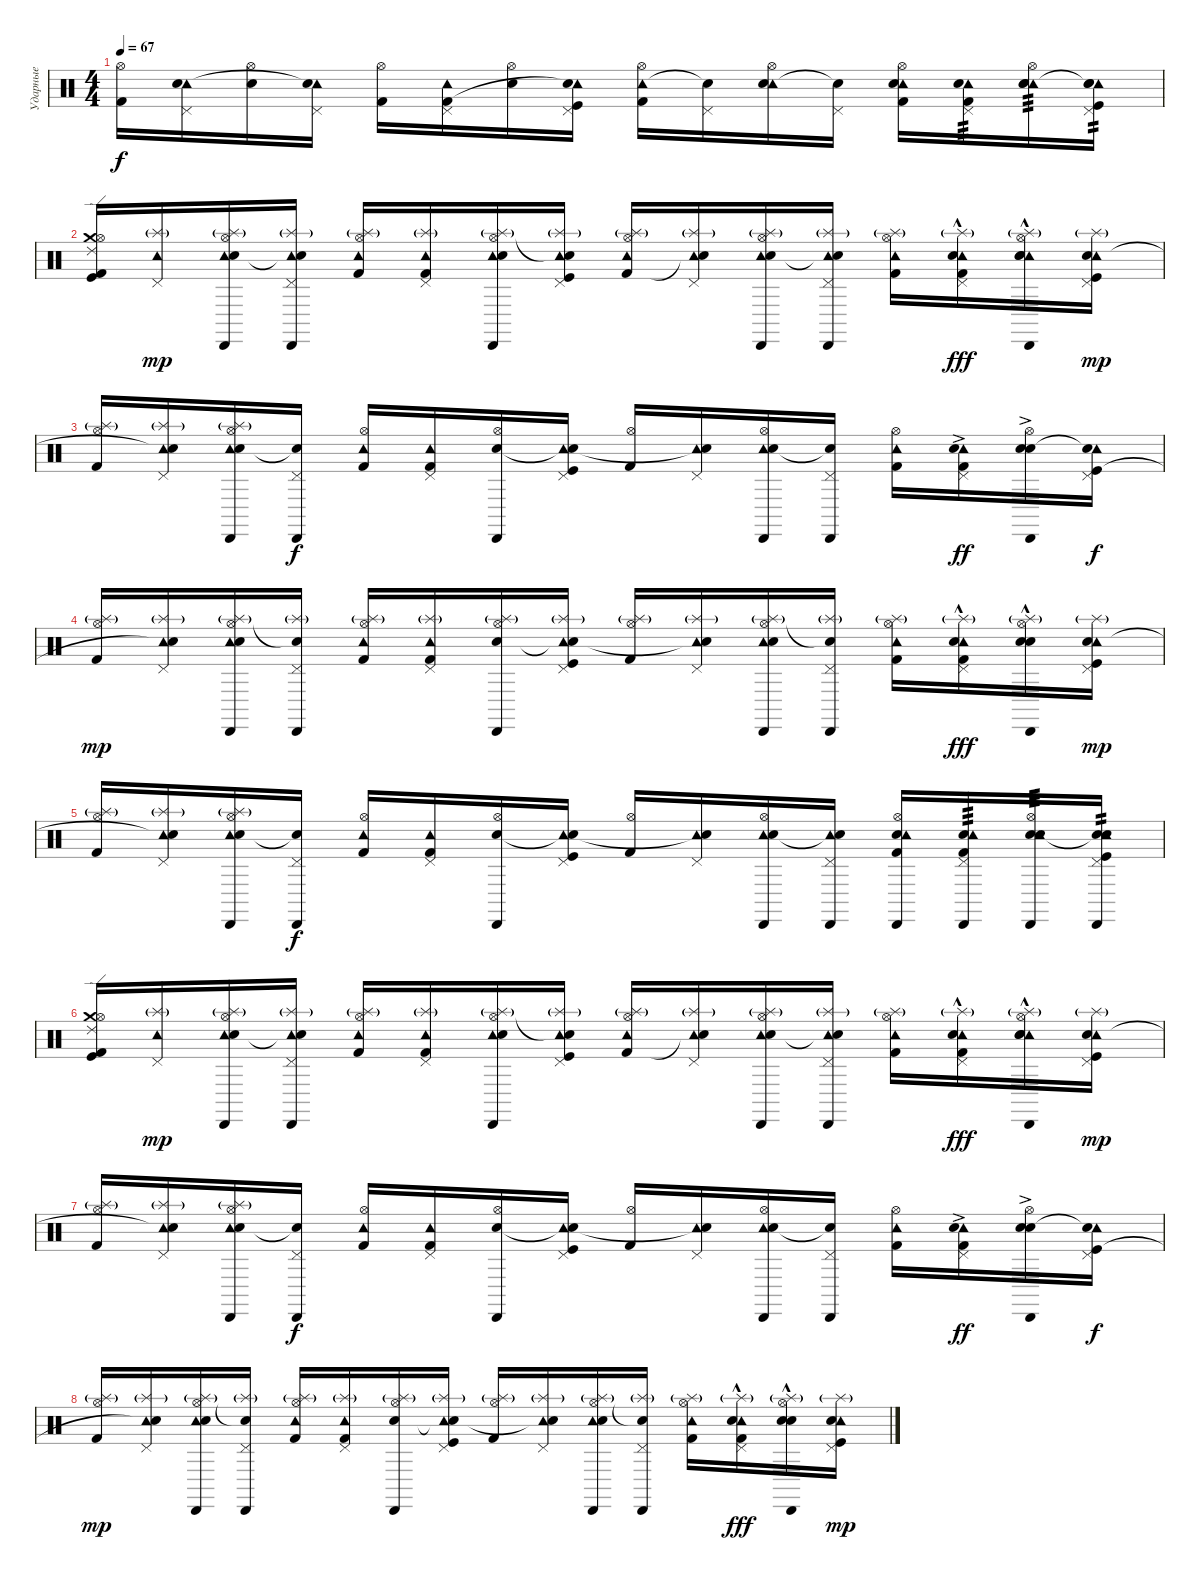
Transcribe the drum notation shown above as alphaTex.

\track ("Ударные" "Ударные") {instrument percussion}
\staff {score}
\articulation defaults
\ts (4 4)
\tempo 67
\clef neutral
\ks c
("Hi-Hat (open)" "Kick (hit) 2").16{dy f} ("Pedal Hi-Hat (hit)" "Tambourine (hit)" "Snare (hit)"{t}).16 ("Hi-Hat (open)" "Electric Snare (hit)").16 ("Pedal Hi-Hat (hit)" "Tambourine (hit)" "Snare (hit) 2"{t}).16 ("Hi-Hat (open)" "Kick (hit) 2").16 ("Pedal Hi-Hat (hit)" "Tambourine (hit)" "Kick (hit) 2").16 ("Hi-Hat (open)" "Snare (hit) 2").16 ("Pedal Hi-Hat (hit)" "Tambourine (hit)" "Snare (hit) 2"{t} "Kick (hit)").16 ("Hi-Hat (open)" "Tambourine (hit)" "Kick (hit) 2").16 ("Pedal Hi-Hat (hit)" "Snare (hit)"{t}).16 ("Hi-Hat (open)" "Tambourine (hit)" "Electric Snare (hit)").16 ("Pedal Hi-Hat (hit)" "Snare (hit) 2"{t}).16 ("Hi-Hat (open)" "Tambourine (hit)" "Snare (hit) 2" "Kick (hit) 2").16 ("Pedal Hi-Hat (hit)" "Tambourine (hit)" "Snare (hit) 2" "Kick (hit) 2").16{tp 3} ("Hi-Hat (open)" "Tambourine (hit)" "Snare (hit) 2" "Electric Snare (hit)").16{tp 3} ("Pedal Hi-Hat (hit)" "Tambourine (hit)" "Snare (hit) 2" "Snare (hit) 2"{t} "Kick (hit)").16{tp 2} |
("Crash medium (hit)" "Kick (hit) 2" "Kick (hit)" "Ride (edge) 2" "Hi-Hat (open)").16 ("Pedal Hi-Hat (hit)" "Tambourine (hit)" "Splash (hit)"{g}).16{dy mp} ("Hi-Hat (open)" "Cabasa (hit)" "Tambourine (hit)" "Splash (hit)"{g} "Snare (hit) 2").16 ("Pedal Hi-Hat (hit)" "Cabasa (hit)" "Tambourine (hit)" "Splash (hit)"{g} "Snare (hit) 2"{t}).16 ("Hi-Hat (open)" "Tambourine (hit)" "Splash (hit)"{g} "Kick (hit) 2").16 ("Pedal Hi-Hat (hit)" "Tambourine (hit)" "Splash (hit)"{g} "Kick (hit) 2").16 ("Hi-Hat (open)" "Cabasa (hit)" "Tambourine (hit)" "Splash (hit)"{g} "Electric Snare (hit)").16 ("Pedal Hi-Hat (hit)" "Tambourine (hit)" "Splash (hit)"{g} "Snare (hit) 2"{t} "Kick (hit)").16 ("Hi-Hat (open)" "Tambourine (hit)" "Splash (hit)"{g} "Kick (hit) 2").16 ("Pedal Hi-Hat (hit)" "Tambourine (hit)" "Splash (hit)"{g} "Snare (hit)"{t}).16 ("Hi-Hat (open)" "Cabasa (hit)" "Tambourine (hit)" "Splash (hit)"{g} "Snare (hit) 2").16 ("Pedal Hi-Hat (hit)" "Cabasa (hit)" "Tambourine (hit)" "Splash (hit)"{g} "Snare (hit) 2"{t}).16 ("Hi-Hat (open)" "Tambourine (hit)" "Splash (hit)"{g} "Kick (hit) 2").16 ("Pedal Hi-Hat (hit)" "Tambourine (hit)" "Splash (hit)"{g} "Hand Clap (hit)"{hac} "Kick (hit) 2").16{dy fff} ("Hi-Hat (open)" "Cabasa (hit)" "Tambourine (hit)" "Splash (hit)"{g} "Electric Snare (hit)" "Hand Clap (hit)"{hac}).16 ("Pedal Hi-Hat (hit)" "Tambourine (hit)" "Splash (hit)"{g} "Electric Snare (hit)" "Kick (hit)").16{dy mp} |
("Hi-Hat (open)" "Splash (hit)"{g} "Kick (hit) 2").16 ("Pedal Hi-Hat (hit)" "Tambourine (hit)" "Splash (hit)"{g} "Snare (hit)"{t}).16 ("Hi-Hat (open)" "Cabasa (hit)" "Tambourine (hit)" "Splash (hit)"{g} "Snare (hit) 2").16 ("Pedal Hi-Hat (hit)" "Cabasa (hit)" "Snare (hit) 2"{t}).16{dy f} ("Hi-Hat (open)" "Tambourine (hit)" "Kick (hit) 2").16 ("Pedal Hi-Hat (hit)" "Tambourine (hit)" "Kick (hit) 2").16 ("Hi-Hat (open)" "Cabasa (hit)" "Electric Snare (hit)").16 ("Pedal Hi-Hat (hit)" "Tambourine (hit)" "Snare (hit) 2"{t} "Kick (hit)").16 ("Hi-Hat (open)" "Kick (hit) 2").16 ("Pedal Hi-Hat (hit)" "Tambourine (hit)" "Snare (hit)"{t}).16 ("Hi-Hat (open)" "Cabasa (hit)" "Tambourine (hit)" "Snare (hit) 2").16 ("Pedal Hi-Hat (hit)" "Cabasa (hit)" "Snare (hit) 2"{t}).16 ("Hi-Hat (open)" "Tambourine (hit)" "Kick (hit) 2").16 ("Pedal Hi-Hat (hit)" "Tambourine (hit)" "Hand Clap (hit)"{ac} "Kick (hit) 2").16{dy ff} ("Hi-Hat (open)" "Cabasa (hit)" "Hand Clap (hit)"{ac} "Electric Snare (hit)").16 ("Pedal Hi-Hat (hit)" "Tambourine (hit)" "Snare (hit) 2"{t} "Kick (hit)").16{dy f} |
("Hi-Hat (open)" "Splash (hit)"{g} "Kick (hit) 2").16{dy mp} ("Pedal Hi-Hat (hit)" "Tambourine (hit)" "Splash (hit)"{g} "Snare (hit)"{t}).16 ("Hi-Hat (open)" "Cabasa (hit)" "Tambourine (hit)" "Splash (hit)"{g} "Snare (hit) 2").16 ("Pedal Hi-Hat (hit)" "Cabasa (hit)" "Splash (hit)"{g} "Snare (hit) 2"{t}).16 ("Hi-Hat (open)" "Tambourine (hit)" "Splash (hit)"{g} "Kick (hit) 2").16 ("Pedal Hi-Hat (hit)" "Tambourine (hit)" "Splash (hit)"{g} "Kick (hit) 2").16 ("Hi-Hat (open)" "Cabasa (hit)" "Splash (hit)"{g} "Electric Snare (hit)").16 ("Pedal Hi-Hat (hit)" "Tambourine (hit)" "Splash (hit)"{g} "Snare (hit) 2"{t} "Kick (hit)").16 ("Hi-Hat (open)" "Splash (hit)"{g} "Kick (hit) 2").16 ("Pedal Hi-Hat (hit)" "Tambourine (hit)" "Splash (hit)"{g} "Snare (hit)"{t}).16 ("Hi-Hat (open)" "Cabasa (hit)" "Tambourine (hit)" "Splash (hit)"{g} "Snare (hit) 2").16 ("Pedal Hi-Hat (hit)" "Cabasa (hit)" "Splash (hit)"{g} "Snare (hit) 2"{t}).16 ("Hi-Hat (open)" "Tambourine (hit)" "Splash (hit)"{g} "Kick (hit) 2").16 ("Pedal Hi-Hat (hit)" "Tambourine (hit)" "Splash (hit)"{g} "Hand Clap (hit)"{hac} "Kick (hit) 2").16{dy fff} ("Hi-Hat (open)" "Cabasa (hit)" "Splash (hit)"{g} "Electric Snare (hit)" "Hand Clap (hit)"{hac}).16 ("Pedal Hi-Hat (hit)" "Tambourine (hit)" "Splash (hit)"{g} "Electric Snare (hit)" "Kick (hit)").16{dy mp} |
("Hi-Hat (open)" "Splash (hit)"{g} "Kick (hit) 2").16 ("Pedal Hi-Hat (hit)" "Tambourine (hit)" "Splash (hit)"{g} "Snare (hit)"{t}).16 ("Hi-Hat (open)" "Cabasa (hit)" "Tambourine (hit)" "Splash (hit)"{g} "Snare (hit) 2").16 ("Pedal Hi-Hat (hit)" "Cabasa (hit)" "Snare (hit) 2"{t}).16{dy f} ("Hi-Hat (open)" "Tambourine (hit)" "Kick (hit) 2").16 ("Pedal Hi-Hat (hit)" "Tambourine (hit)" "Kick (hit) 2").16 ("Hi-Hat (open)" "Cabasa (hit)" "Electric Snare (hit)").16 ("Pedal Hi-Hat (hit)" "Tambourine (hit)" "Snare (hit) 2"{t} "Kick (hit)").16 ("Hi-Hat (open)" "Kick (hit) 2").16 ("Pedal Hi-Hat (hit)" "Tambourine (hit)" "Snare (hit)"{t}).16 ("Hi-Hat (open)" "Cabasa (hit)" "Tambourine (hit)" "Snare (hit) 2").16 ("Pedal Hi-Hat (hit)" "Cabasa (hit)" "Tambourine (hit)" "Snare (hit) 2"{t}).16 ("Hi-Hat (open)" "Cabasa (hit)" "Snare (hit) 2" "Tambourine (hit)" "Kick (hit) 2").16 ("Pedal Hi-Hat (hit)" "Cabasa (hit)" "Snare (hit) 2" "Tambourine (hit)" "Kick (hit) 2").16{tp 3} ("Hi-Hat (open)" "Cabasa (hit)" "Snare (hit) 2" "Tambourine (hit)" "Electric Snare (hit)").16{tp 3} ("Pedal Hi-Hat (hit)" "Cabasa (hit)" "Snare (hit) 2" "Tambourine (hit)" "Snare (hit) 2"{t} "Kick (hit)").16{tp 2} |
("Crash medium (hit)" "Kick (hit) 2" "Kick (hit)" "Ride (edge) 2" "Hi-Hat (open)").16 ("Pedal Hi-Hat (hit)" "Tambourine (hit)" "Splash (hit)"{g}).16{dy mp} ("Hi-Hat (open)" "Cabasa (hit)" "Tambourine (hit)" "Splash (hit)"{g} "Snare (hit) 2").16 ("Pedal Hi-Hat (hit)" "Cabasa (hit)" "Tambourine (hit)" "Splash (hit)"{g} "Snare (hit) 2"{t}).16 ("Hi-Hat (open)" "Tambourine (hit)" "Splash (hit)"{g} "Kick (hit) 2").16 ("Pedal Hi-Hat (hit)" "Tambourine (hit)" "Splash (hit)"{g} "Kick (hit) 2").16 ("Hi-Hat (open)" "Cabasa (hit)" "Tambourine (hit)" "Splash (hit)"{g} "Electric Snare (hit)").16 ("Pedal Hi-Hat (hit)" "Tambourine (hit)" "Splash (hit)"{g} "Snare (hit) 2"{t} "Kick (hit)").16 ("Hi-Hat (open)" "Tambourine (hit)" "Splash (hit)"{g} "Kick (hit) 2").16 ("Pedal Hi-Hat (hit)" "Tambourine (hit)" "Splash (hit)"{g} "Snare (hit)"{t}).16 ("Hi-Hat (open)" "Cabasa (hit)" "Tambourine (hit)" "Splash (hit)"{g} "Snare (hit) 2").16 ("Pedal Hi-Hat (hit)" "Cabasa (hit)" "Tambourine (hit)" "Splash (hit)"{g} "Snare (hit) 2"{t}).16 ("Hi-Hat (open)" "Tambourine (hit)" "Splash (hit)"{g} "Kick (hit) 2").16 ("Pedal Hi-Hat (hit)" "Tambourine (hit)" "Splash (hit)"{g} "Hand Clap (hit)"{hac} "Kick (hit) 2").16{dy fff} ("Hi-Hat (open)" "Cabasa (hit)" "Tambourine (hit)" "Splash (hit)"{g} "Electric Snare (hit)" "Hand Clap (hit)"{hac}).16 ("Pedal Hi-Hat (hit)" "Tambourine (hit)" "Splash (hit)"{g} "Electric Snare (hit)" "Kick (hit)").16{dy mp} |
("Hi-Hat (open)" "Splash (hit)"{g} "Kick (hit) 2").16 ("Pedal Hi-Hat (hit)" "Tambourine (hit)" "Splash (hit)"{g} "Snare (hit)"{t}).16 ("Hi-Hat (open)" "Cabasa (hit)" "Tambourine (hit)" "Splash (hit)"{g} "Snare (hit) 2").16 ("Pedal Hi-Hat (hit)" "Cabasa (hit)" "Snare (hit) 2"{t}).16{dy f} ("Hi-Hat (open)" "Tambourine (hit)" "Kick (hit) 2").16 ("Pedal Hi-Hat (hit)" "Tambourine (hit)" "Kick (hit) 2").16 ("Hi-Hat (open)" "Cabasa (hit)" "Electric Snare (hit)").16 ("Pedal Hi-Hat (hit)" "Tambourine (hit)" "Snare (hit) 2"{t} "Kick (hit)").16 ("Hi-Hat (open)" "Kick (hit) 2").16 ("Pedal Hi-Hat (hit)" "Tambourine (hit)" "Snare (hit)"{t}).16 ("Hi-Hat (open)" "Cabasa (hit)" "Tambourine (hit)" "Snare (hit) 2").16 ("Pedal Hi-Hat (hit)" "Cabasa (hit)" "Snare (hit) 2"{t}).16 ("Hi-Hat (open)" "Tambourine (hit)" "Kick (hit) 2").16 ("Pedal Hi-Hat (hit)" "Tambourine (hit)" "Hand Clap (hit)"{ac} "Kick (hit) 2").16{dy ff} ("Hi-Hat (open)" "Cabasa (hit)" "Hand Clap (hit)"{ac} "Electric Snare (hit)").16 ("Pedal Hi-Hat (hit)" "Tambourine (hit)" "Snare (hit) 2"{t} "Kick (hit)").16{dy f} |
("Hi-Hat (open)" "Splash (hit)"{g} "Kick (hit) 2").16{dy mp} ("Pedal Hi-Hat (hit)" "Tambourine (hit)" "Splash (hit)"{g} "Snare (hit)"{t}).16 ("Hi-Hat (open)" "Cabasa (hit)" "Tambourine (hit)" "Splash (hit)"{g} "Snare (hit) 2").16 ("Pedal Hi-Hat (hit)" "Cabasa (hit)" "Splash (hit)"{g} "Snare (hit) 2"{t}).16 ("Hi-Hat (open)" "Tambourine (hit)" "Splash (hit)"{g} "Kick (hit) 2").16 ("Pedal Hi-Hat (hit)" "Tambourine (hit)" "Splash (hit)"{g} "Kick (hit) 2").16 ("Hi-Hat (open)" "Cabasa (hit)" "Splash (hit)"{g} "Electric Snare (hit)").16 ("Pedal Hi-Hat (hit)" "Tambourine (hit)" "Splash (hit)"{g} "Snare (hit) 2"{t} "Kick (hit)").16 ("Hi-Hat (open)" "Splash (hit)"{g} "Kick (hit) 2").16 ("Pedal Hi-Hat (hit)" "Tambourine (hit)" "Splash (hit)"{g} "Snare (hit)"{t}).16 ("Hi-Hat (open)" "Cabasa (hit)" "Tambourine (hit)" "Splash (hit)"{g} "Snare (hit) 2").16 ("Pedal Hi-Hat (hit)" "Cabasa (hit)" "Splash (hit)"{g} "Snare (hit) 2"{t}).16 ("Hi-Hat (open)" "Tambourine (hit)" "Splash (hit)"{g} "Kick (hit) 2").16 ("Pedal Hi-Hat (hit)" "Tambourine (hit)" "Splash (hit)"{g} "Hand Clap (hit)"{hac} "Kick (hit) 2").16{dy fff} ("Hi-Hat (open)" "Cabasa (hit)" "Splash (hit)"{g} "Electric Snare (hit)" "Hand Clap (hit)"{hac}).16 ("Pedal Hi-Hat (hit)" "Tambourine (hit)" "Splash (hit)"{g} "Electric Snare (hit)" "Kick (hit)").16{dy mp}
